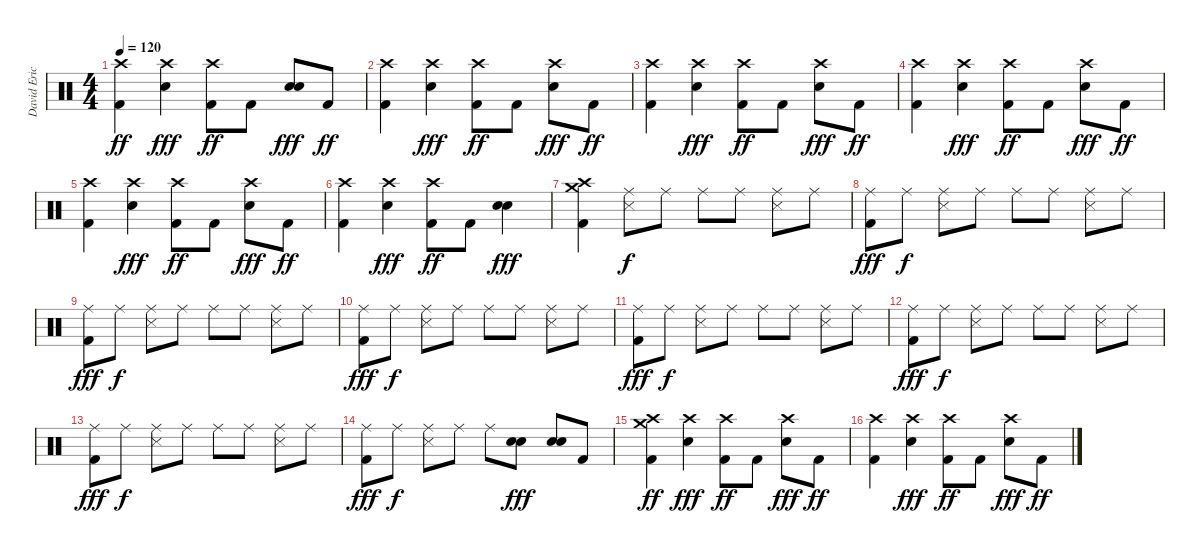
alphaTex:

\track ("David Eric Grohl" "David Eric") {instrument percussion}
\staff {score}
\articulation defaults
\ts (4 4)
\tempo 120
\clef neutral
\ks c
("Crash high (hit)" "Kick (hit) 2").4{dy ff} ("Crash high (hit)" "Electric Snare (hit)").4{dy fff} ("Crash high (hit)" "Kick (hit) 2").8{dy ff} "Kick (hit) 2".8 ("Electric Snare (hit)" "Electric Snare (hit)").8{dy fff} "Kick (hit) 2".8{dy ff} |
("Crash high (hit)" "Kick (hit) 2").4 ("Crash high (hit)" "Electric Snare (hit)").4{dy fff} ("Crash high (hit)" "Kick (hit) 2").8{dy ff} "Kick (hit) 2".8 ("Crash high (hit)" "Electric Snare (hit)").8{dy fff} "Kick (hit) 2".8{dy ff} |
("Crash high (hit)" "Kick (hit) 2").4 ("Crash high (hit)" "Electric Snare (hit)").4{dy fff} ("Crash high (hit)" "Kick (hit) 2").8{dy ff} "Kick (hit) 2".8 ("Crash high (hit)" "Electric Snare (hit)").8{dy fff} "Kick (hit) 2".8{dy ff} |
("Crash high (hit)" "Kick (hit) 2").4 ("Crash high (hit)" "Electric Snare (hit)").4{dy fff} ("Crash high (hit)" "Kick (hit) 2").8{dy ff} "Kick (hit) 2".8 ("Crash high (hit)" "Electric Snare (hit)").8{dy fff} "Kick (hit) 2".8{dy ff} |
("Crash high (hit)" "Kick (hit) 2").4 ("Crash high (hit)" "Electric Snare (hit)").4{dy fff} ("Crash high (hit)" "Kick (hit) 2").8{dy ff} "Kick (hit) 2".8 ("Crash high (hit)" "Electric Snare (hit)").8{dy fff} "Kick (hit) 2".8{dy ff} |
("Crash high (hit)" "Kick (hit) 2").4 ("Crash high (hit)" "Electric Snare (hit)").4{dy fff} ("Crash high (hit)" "Kick (hit) 2").8{dy ff} "Kick (hit) 2".8 ("Electric Snare (hit)" "Electric Snare (hit)").4{dy fff} |
("Crash medium (hit)" "Crash high (hit)" "Kick (hit) 2").4 ("Ride (middle)" "Snare (side stick) 3").8{dy f} "Ride (middle)".8 "Ride (middle)".8 "Ride (middle)".8 ("Ride (middle)" "Snare (side stick) 3").8 "Ride (middle)".8 |
("Ride (middle)" "Kick (hit) 2").8{dy fff} "Ride (middle)".8{dy f} ("Ride (middle)" "Snare (side stick) 3").8 "Ride (middle)".8 "Ride (middle)".8 "Ride (middle)".8 ("Ride (middle)" "Snare (side stick) 3").8 "Ride (middle)".8 |
("Ride (middle)" "Kick (hit) 2").8{dy fff} "Ride (middle)".8{dy f} ("Ride (middle)" "Snare (side stick) 3").8 "Ride (middle)".8 "Ride (middle)".8 "Ride (middle)".8 ("Ride (middle)" "Snare (side stick) 3").8 "Ride (middle)".8 |
("Ride (middle)" "Kick (hit) 2").8{dy fff} "Ride (middle)".8{dy f} ("Ride (middle)" "Snare (side stick) 3").8 "Ride (middle)".8 "Ride (middle)".8 "Ride (middle)".8 ("Ride (middle)" "Snare (side stick) 3").8 "Ride (middle)".8 |
("Ride (middle)" "Kick (hit) 2").8{dy fff} "Ride (middle)".8{dy f} ("Ride (middle)" "Snare (side stick) 3").8 "Ride (middle)".8 "Ride (middle)".8 "Ride (middle)".8 ("Ride (middle)" "Snare (side stick) 3").8 "Ride (middle)".8 |
("Ride (middle)" "Kick (hit) 2").8{dy fff} "Ride (middle)".8{dy f} ("Ride (middle)" "Snare (side stick) 3").8 "Ride (middle)".8 "Ride (middle)".8 "Ride (middle)".8 ("Ride (middle)" "Snare (side stick) 3").8 "Ride (middle)".8 |
("Ride (middle)" "Kick (hit) 2").8{dy fff} "Ride (middle)".8{dy f} ("Ride (middle)" "Snare (side stick) 3").8 "Ride (middle)".8 "Ride (middle)".8 "Ride (middle)".8 ("Ride (middle)" "Snare (side stick) 3").8 "Ride (middle)".8 |
("Ride (middle)" "Kick (hit) 2").8{dy fff} "Ride (middle)".8{dy f} ("Ride (middle)" "Snare (side stick) 3").8 "Ride (middle)".8 "Ride (middle)".8 ("Electric Snare (hit)" "Electric Snare (hit)").8{dy fff} ("Electric Snare (hit)" "Electric Snare (hit)").8 "Kick (hit) 2".8 |
("Crash medium (hit)" "Crash high (hit)" "Kick (hit) 2").4{dy ff} ("Crash high (hit)" "Electric Snare (hit)").4{dy fff} ("Crash high (hit)" "Kick (hit) 2").8{dy ff} "Kick (hit) 2".8 ("Crash high (hit)" "Electric Snare (hit)").8{dy fff} "Kick (hit) 2".8{dy ff} |
("Crash high (hit)" "Kick (hit) 2").4 ("Crash high (hit)" "Electric Snare (hit)").4{dy fff} ("Crash high (hit)" "Kick (hit) 2").8{dy ff} "Kick (hit) 2".8 ("Crash high (hit)" "Electric Snare (hit)").8{dy fff} "Kick (hit) 2".8{dy ff}
